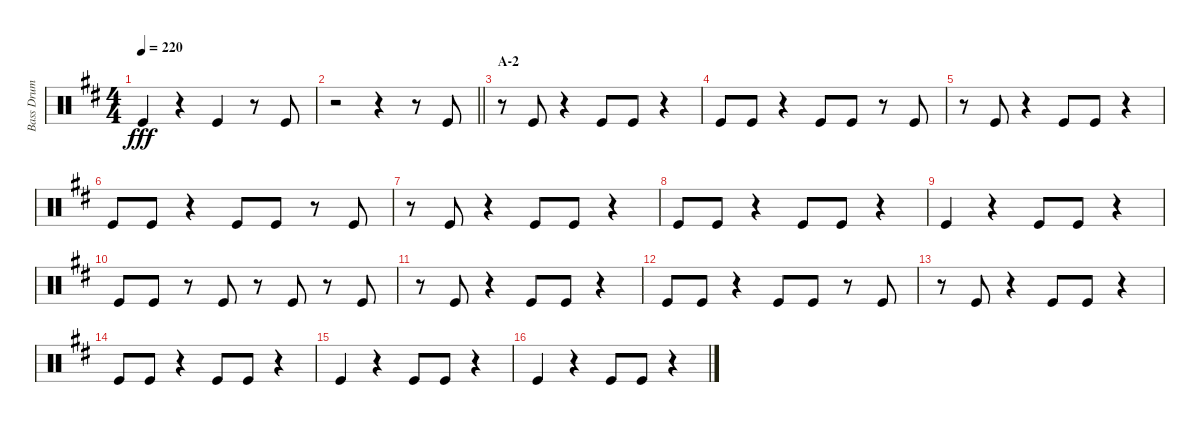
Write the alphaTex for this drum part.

\track ("Bass Drum" "Bass Drum") {instrument percussion}
\staff {score}
\articulation defaults
\ts (4 4)
\tempo 220
\clef neutral
\ks d "Kick (hit)".4{dy fff}
r.4 "Kick (hit)".4 r.8 "Kick (hit)".8 |
\barLineRight lightlight
r.2 r.4 r.8 "Kick (hit)".8 |
\section ("" "A-2")
r.8 "Kick (hit)".8 r.4 "Kick (hit)".8 "Kick (hit)".8 r.4 |
"Kick (hit)".8 "Kick (hit)".8 r.4 "Kick (hit)".8 "Kick (hit)".8 r.8 "Kick (hit)".8 |
r.8 "Kick (hit)".8 r.4 "Kick (hit)".8 "Kick (hit)".8 r.4 |
"Kick (hit)".8 "Kick (hit)".8 r.4 "Kick (hit)".8 "Kick (hit)".8 r.8 "Kick (hit)".8 |
r.8 "Kick (hit)".8 r.4 "Kick (hit)".8 "Kick (hit)".8 r.4 |
"Kick (hit)".8 "Kick (hit)".8 r.4 "Kick (hit)".8 "Kick (hit)".8 r.4 |
"Kick (hit)".4 r.4 "Kick (hit)".8 "Kick (hit)".8 r.4 |
"Kick (hit)".8 "Kick (hit)".8 r.8 "Kick (hit)".8 r.8 "Kick (hit)".8 r.8 "Kick (hit)".8 |
r.8 "Kick (hit)".8 r.4 "Kick (hit)".8 "Kick (hit)".8 r.4 |
"Kick (hit)".8 "Kick (hit)".8 r.4 "Kick (hit)".8 "Kick (hit)".8 r.8 "Kick (hit)".8 |
r.8 "Kick (hit)".8 r.4 "Kick (hit)".8 "Kick (hit)".8 r.4 |
"Kick (hit)".8 "Kick (hit)".8 r.4 "Kick (hit)".8 "Kick (hit)".8 r.4 |
"Kick (hit)".4 r.4 "Kick (hit)".8 "Kick (hit)".8 r.4 |
"Kick (hit)".4 r.4 "Kick (hit)".8 "Kick (hit)".8 r.4
